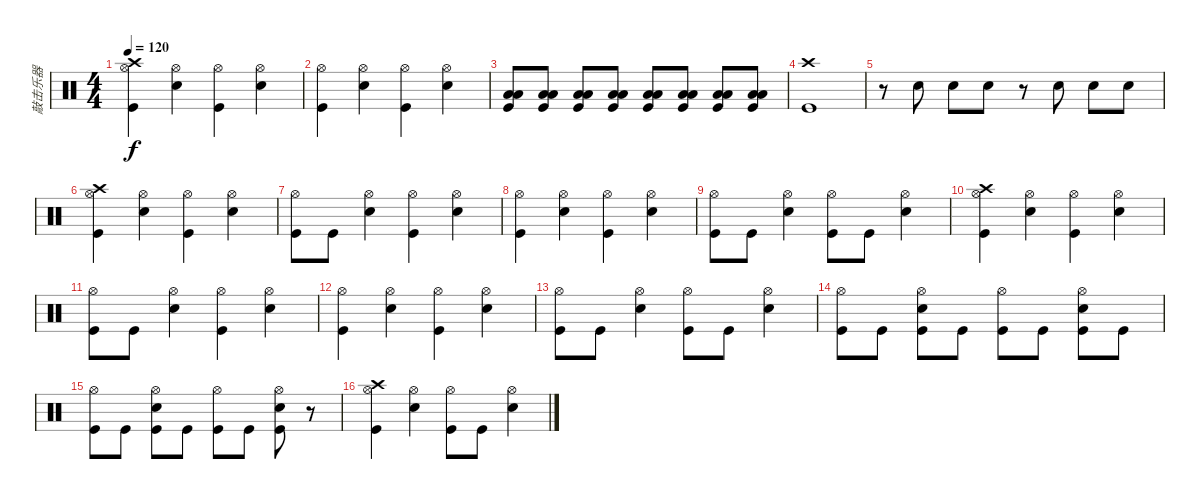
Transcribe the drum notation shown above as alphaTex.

\track ("敲击乐器" "敲击乐器") {instrument percussion}
\staff {score}
\articulation defaults
\ts (4 4)
\tempo 120
\clef neutral
\ks c
("Crash high (hit)" "Hi-Hat (open)" "Kick (hit)").4{dy f} ("Hi-Hat (open)" "Snare (hit) 2").4 ("Hi-Hat (open)" "Kick (hit)").4 ("Hi-Hat (open)" "Snare (hit) 2").4 |
("Hi-Hat (open)" "Kick (hit)").4 ("Hi-Hat (open)" "Snare (hit) 2").4 ("Hi-Hat (open)" "Kick (hit)").4 ("Hi-Hat (open)" "Snare (hit) 2").4 |
("Low Tom (hit)" "Low Floor Tom (hit)" "Kick (hit)").8 ("Low Tom (hit)" "Low Floor Tom (hit)" "Kick (hit)").8 ("Low Tom (hit)" "Low Floor Tom (hit)" "Kick (hit)").8 ("Low Tom (hit)" "Low Floor Tom (hit)" "Kick (hit)").8 ("Low Tom (hit)" "Low Floor Tom (hit)" "Kick (hit)").8 ("Low Tom (hit)" "Low Floor Tom (hit)" "Kick (hit)").8 ("Low Tom (hit)" "Low Floor Tom (hit)" "Kick (hit)").8 ("Low Tom (hit)" "Low Floor Tom (hit)" "Kick (hit)").8 |
("Crash high (hit)" "Kick (hit)").1 |
r.8 "Snare (hit) 2".8 "Snare (hit) 2".8 "Snare (hit) 2".8 r.8 "Snare (hit) 2".8 "Snare (hit) 2".8 "Snare (hit) 2".8 |
("Crash high (hit)" "Hi-Hat (open)" "Kick (hit)").4 ("Hi-Hat (open)" "Snare (hit) 2").4 ("Hi-Hat (open)" "Kick (hit)").4 ("Hi-Hat (open)" "Snare (hit) 2").4 |
("Hi-Hat (open)" "Kick (hit)").8 "Kick (hit)".8 ("Hi-Hat (open)" "Snare (hit) 2").4 ("Hi-Hat (open)" "Kick (hit)").4 ("Hi-Hat (open)" "Snare (hit) 2").4 |
("Hi-Hat (open)" "Kick (hit)").4 ("Hi-Hat (open)" "Snare (hit) 2").4 ("Hi-Hat (open)" "Kick (hit)").4 ("Hi-Hat (open)" "Snare (hit) 2").4 |
("Hi-Hat (open)" "Kick (hit)").8 "Kick (hit)".8 ("Hi-Hat (open)" "Snare (hit) 2").4 ("Hi-Hat (open)" "Kick (hit)").8 "Kick (hit)".8 ("Hi-Hat (open)" "Snare (hit) 2").4 |
("Crash high (hit)" "Hi-Hat (open)" "Kick (hit)").4 ("Hi-Hat (open)" "Snare (hit) 2").4 ("Hi-Hat (open)" "Kick (hit)").4 ("Hi-Hat (open)" "Snare (hit) 2").4 |
("Hi-Hat (open)" "Kick (hit)").8 "Kick (hit)".8 ("Hi-Hat (open)" "Snare (hit) 2").4 ("Hi-Hat (open)" "Kick (hit)").4 ("Hi-Hat (open)" "Snare (hit) 2").4 |
("Hi-Hat (open)" "Kick (hit)").4 ("Hi-Hat (open)" "Snare (hit) 2").4 ("Hi-Hat (open)" "Kick (hit)").4 ("Hi-Hat (open)" "Snare (hit) 2").4 |
("Hi-Hat (open)" "Kick (hit)").8 "Kick (hit)".8 ("Hi-Hat (open)" "Snare (hit) 2").4 ("Hi-Hat (open)" "Kick (hit)").8 "Kick (hit)".8 ("Hi-Hat (open)" "Snare (hit) 2").4 |
("Hi-Hat (open)" "Kick (hit)").8 "Kick (hit)".8 ("Hi-Hat (open)" "Snare (hit) 2" "Kick (hit)").8 "Kick (hit)".8 ("Hi-Hat (open)" "Kick (hit)").8 "Kick (hit)".8 ("Hi-Hat (open)" "Snare (hit) 2" "Kick (hit)").8 "Kick (hit)".8 |
("Hi-Hat (open)" "Kick (hit)").8 "Kick (hit)".8 ("Hi-Hat (open)" "Snare (hit) 2" "Kick (hit)").8 "Kick (hit)".8 ("Hi-Hat (open)" "Kick (hit)").8 "Kick (hit)".8 ("Hi-Hat (open)" "Snare (hit) 2" "Kick (hit)").8 r.8 |
("Crash high (hit)" "Hi-Hat (open)" "Kick (hit)").4 ("Hi-Hat (open)" "Snare (hit) 2").4 ("Hi-Hat (open)" "Kick (hit)").8 "Kick (hit)".8 ("Hi-Hat (open)" "Snare (hit) 2").4
